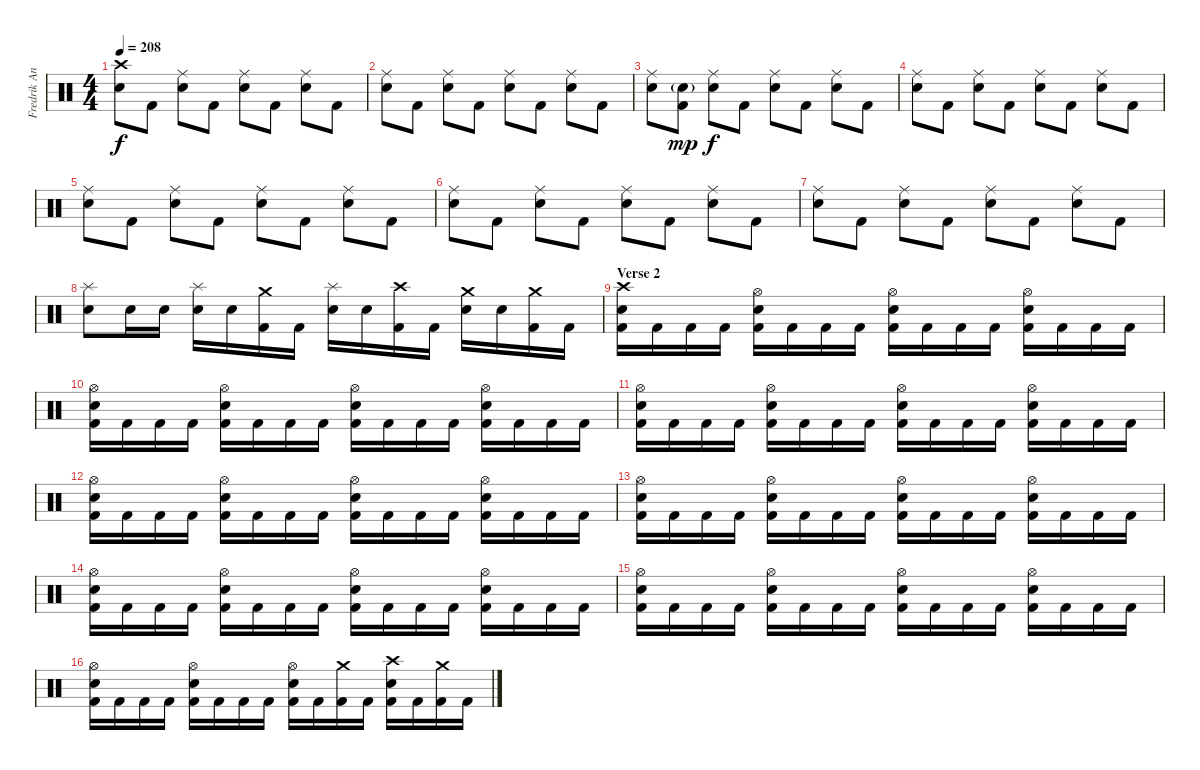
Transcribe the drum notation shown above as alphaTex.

\track ("Fredrik Andersson" "Fredrik An") {instrument percussion}
\staff {score}
\articulation defaults
\ts (4 4)
\section ("" "")
\tempo 208
\clef neutral
\ks c
("Crash high (hit)" "Electric Snare (hit)").8{dy f} "Kick (hit) 2".8 ("Ride (middle)" "Electric Snare (hit)").8 "Kick (hit) 2".8 ("Ride (middle)" "Electric Snare (hit)").8 "Kick (hit) 2".8 ("Ride (middle)" "Electric Snare (hit)").8 "Kick (hit) 2".8 |
("Ride (middle)" "Electric Snare (hit)").8 "Kick (hit) 2".8 ("Ride (middle)" "Electric Snare (hit)").8 "Kick (hit) 2".8 ("Ride (middle)" "Electric Snare (hit)").8 "Kick (hit) 2".8 ("Ride (middle)" "Electric Snare (hit)").8 "Kick (hit) 2".8 |
("Ride (middle)" "Electric Snare (hit)").8 ("Electric Snare (hit)"{g} "Kick (hit) 2").8{dy mp} ("Ride (middle)" "Electric Snare (hit)").8{dy f} "Kick (hit) 2".8 ("Ride (middle)" "Electric Snare (hit)").8 "Kick (hit) 2".8 ("Ride (middle)" "Electric Snare (hit)").8 "Kick (hit) 2".8 |
("Ride (middle)" "Electric Snare (hit)").8 "Kick (hit) 2".8 ("Ride (middle)" "Electric Snare (hit)").8 "Kick (hit) 2".8 ("Ride (middle)" "Electric Snare (hit)").8 "Kick (hit) 2".8 ("Ride (middle)" "Electric Snare (hit)").8 "Kick (hit) 2".8 |
("Ride (middle)" "Electric Snare (hit)").8 "Kick (hit) 2".8 ("Ride (middle)" "Electric Snare (hit)").8 "Kick (hit) 2".8 ("Ride (middle)" "Electric Snare (hit)").8 "Kick (hit) 2".8 ("Ride (middle)" "Electric Snare (hit)").8 "Kick (hit) 2".8 |
("Ride (middle)" "Electric Snare (hit)").8 "Kick (hit) 2".8 ("Ride (middle)" "Electric Snare (hit)").8 "Kick (hit) 2".8 ("Ride (middle)" "Electric Snare (hit)").8 "Kick (hit) 2".8 ("Ride (middle)" "Electric Snare (hit)").8 "Kick (hit) 2".8 |
("Ride (middle)" "Electric Snare (hit)").8 "Kick (hit) 2".8 ("Ride (middle)" "Electric Snare (hit)").8 "Kick (hit) 2".8 ("Ride (middle)" "Electric Snare (hit)").8 "Kick (hit) 2".8 ("Ride (middle)" "Electric Snare (hit)").8 "Kick (hit) 2".8 |
("Splash (hit)" "Electric Snare (hit)").8 "Electric Snare (hit)".16 "Electric Snare (hit)".16 ("Splash (hit)" "Electric Snare (hit)").16 "Electric Snare (hit)".16 ("Crash medium (hit)" "Kick (hit) 2").16 "Kick (hit) 2".16 ("Splash (hit)" "Electric Snare (hit)").16 "Electric Snare (hit)".16 ("Crash high (hit)" "Kick (hit) 2").16 "Kick (hit) 2".16 ("Crash medium (hit)" "Electric Snare (hit)").16 "Electric Snare (hit)".16 ("Crash medium (hit)" "Kick (hit) 2").16 "Kick (hit) 2".16 |
\section ("" "Verse 2")
("Crash high (hit)" "Electric Snare (hit)" "Kick (hit) 2").16 "Kick (hit) 2".16 "Kick (hit) 2".16 "Kick (hit) 2".16 ("Hi-Hat (open)" "Electric Snare (hit)" "Kick (hit) 2").16 "Kick (hit) 2".16 "Kick (hit) 2".16 "Kick (hit) 2".16 ("Hi-Hat (open)" "Electric Snare (hit)" "Kick (hit) 2").16 "Kick (hit) 2".16 "Kick (hit) 2".16 "Kick (hit) 2".16 ("Hi-Hat (open)" "Electric Snare (hit)" "Kick (hit) 2").16 "Kick (hit) 2".16 "Kick (hit) 2".16 "Kick (hit) 2".16 |
("Hi-Hat (open)" "Electric Snare (hit)" "Kick (hit) 2").16 "Kick (hit) 2".16 "Kick (hit) 2".16 "Kick (hit) 2".16 ("Hi-Hat (open)" "Electric Snare (hit)" "Kick (hit) 2").16 "Kick (hit) 2".16 "Kick (hit) 2".16 "Kick (hit) 2".16 ("Hi-Hat (open)" "Electric Snare (hit)" "Kick (hit) 2").16 "Kick (hit) 2".16 "Kick (hit) 2".16 "Kick (hit) 2".16 ("Hi-Hat (open)" "Electric Snare (hit)" "Kick (hit) 2").16 "Kick (hit) 2".16 "Kick (hit) 2".16 "Kick (hit) 2".16 |
("Hi-Hat (open)" "Electric Snare (hit)" "Kick (hit) 2").16 "Kick (hit) 2".16 "Kick (hit) 2".16 "Kick (hit) 2".16 ("Hi-Hat (open)" "Electric Snare (hit)" "Kick (hit) 2").16 "Kick (hit) 2".16 "Kick (hit) 2".16 "Kick (hit) 2".16 ("Hi-Hat (open)" "Electric Snare (hit)" "Kick (hit) 2").16 "Kick (hit) 2".16 "Kick (hit) 2".16 "Kick (hit) 2".16 ("Hi-Hat (open)" "Electric Snare (hit)" "Kick (hit) 2").16 "Kick (hit) 2".16 "Kick (hit) 2".16 "Kick (hit) 2".16 |
("Hi-Hat (open)" "Electric Snare (hit)" "Kick (hit) 2").16 "Kick (hit) 2".16 "Kick (hit) 2".16 "Kick (hit) 2".16 ("Hi-Hat (open)" "Electric Snare (hit)" "Kick (hit) 2").16 "Kick (hit) 2".16 "Kick (hit) 2".16 "Kick (hit) 2".16 ("Hi-Hat (open)" "Electric Snare (hit)" "Kick (hit) 2").16 "Kick (hit) 2".16 "Kick (hit) 2".16 "Kick (hit) 2".16 ("Hi-Hat (open)" "Electric Snare (hit)" "Kick (hit) 2").16 "Kick (hit) 2".16 "Kick (hit) 2".16 "Kick (hit) 2".16 |
("Hi-Hat (open)" "Electric Snare (hit)" "Kick (hit) 2").16 "Kick (hit) 2".16 "Kick (hit) 2".16 "Kick (hit) 2".16 ("Hi-Hat (open)" "Electric Snare (hit)" "Kick (hit) 2").16 "Kick (hit) 2".16 "Kick (hit) 2".16 "Kick (hit) 2".16 ("Hi-Hat (open)" "Electric Snare (hit)" "Kick (hit) 2").16 "Kick (hit) 2".16 "Kick (hit) 2".16 "Kick (hit) 2".16 ("Hi-Hat (open)" "Electric Snare (hit)" "Kick (hit) 2").16 "Kick (hit) 2".16 "Kick (hit) 2".16 "Kick (hit) 2".16 |
("Hi-Hat (open)" "Electric Snare (hit)" "Kick (hit) 2").16 "Kick (hit) 2".16 "Kick (hit) 2".16 "Kick (hit) 2".16 ("Hi-Hat (open)" "Electric Snare (hit)" "Kick (hit) 2").16 "Kick (hit) 2".16 "Kick (hit) 2".16 "Kick (hit) 2".16 ("Hi-Hat (open)" "Electric Snare (hit)" "Kick (hit) 2").16 "Kick (hit) 2".16 "Kick (hit) 2".16 "Kick (hit) 2".16 ("Hi-Hat (open)" "Electric Snare (hit)" "Kick (hit) 2").16 "Kick (hit) 2".16 "Kick (hit) 2".16 "Kick (hit) 2".16 |
("Hi-Hat (open)" "Electric Snare (hit)" "Kick (hit) 2").16 "Kick (hit) 2".16 "Kick (hit) 2".16 "Kick (hit) 2".16 ("Hi-Hat (open)" "Electric Snare (hit)" "Kick (hit) 2").16 "Kick (hit) 2".16 "Kick (hit) 2".16 "Kick (hit) 2".16 ("Hi-Hat (open)" "Electric Snare (hit)" "Kick (hit) 2").16 "Kick (hit) 2".16 "Kick (hit) 2".16 "Kick (hit) 2".16 ("Hi-Hat (open)" "Electric Snare (hit)" "Kick (hit) 2").16 "Kick (hit) 2".16 "Kick (hit) 2".16 "Kick (hit) 2".16 |
("Hi-Hat (open)" "Electric Snare (hit)" "Kick (hit) 2").16 "Kick (hit) 2".16 "Kick (hit) 2".16 "Kick (hit) 2".16 ("Hi-Hat (open)" "Electric Snare (hit)" "Kick (hit) 2").16 "Kick (hit) 2".16 "Kick (hit) 2".16 "Kick (hit) 2".16 ("Hi-Hat (open)" "Electric Snare (hit)" "Kick (hit) 2").16 "Kick (hit) 2".16 ("Crash medium (hit)" "Kick (hit) 2").16 "Kick (hit) 2".16 ("Crash high (hit)" "Electric Snare (hit)" "Kick (hit) 2").16 "Kick (hit) 2".16 ("Crash medium (hit)" "Kick (hit) 2").16 "Kick (hit) 2".16
